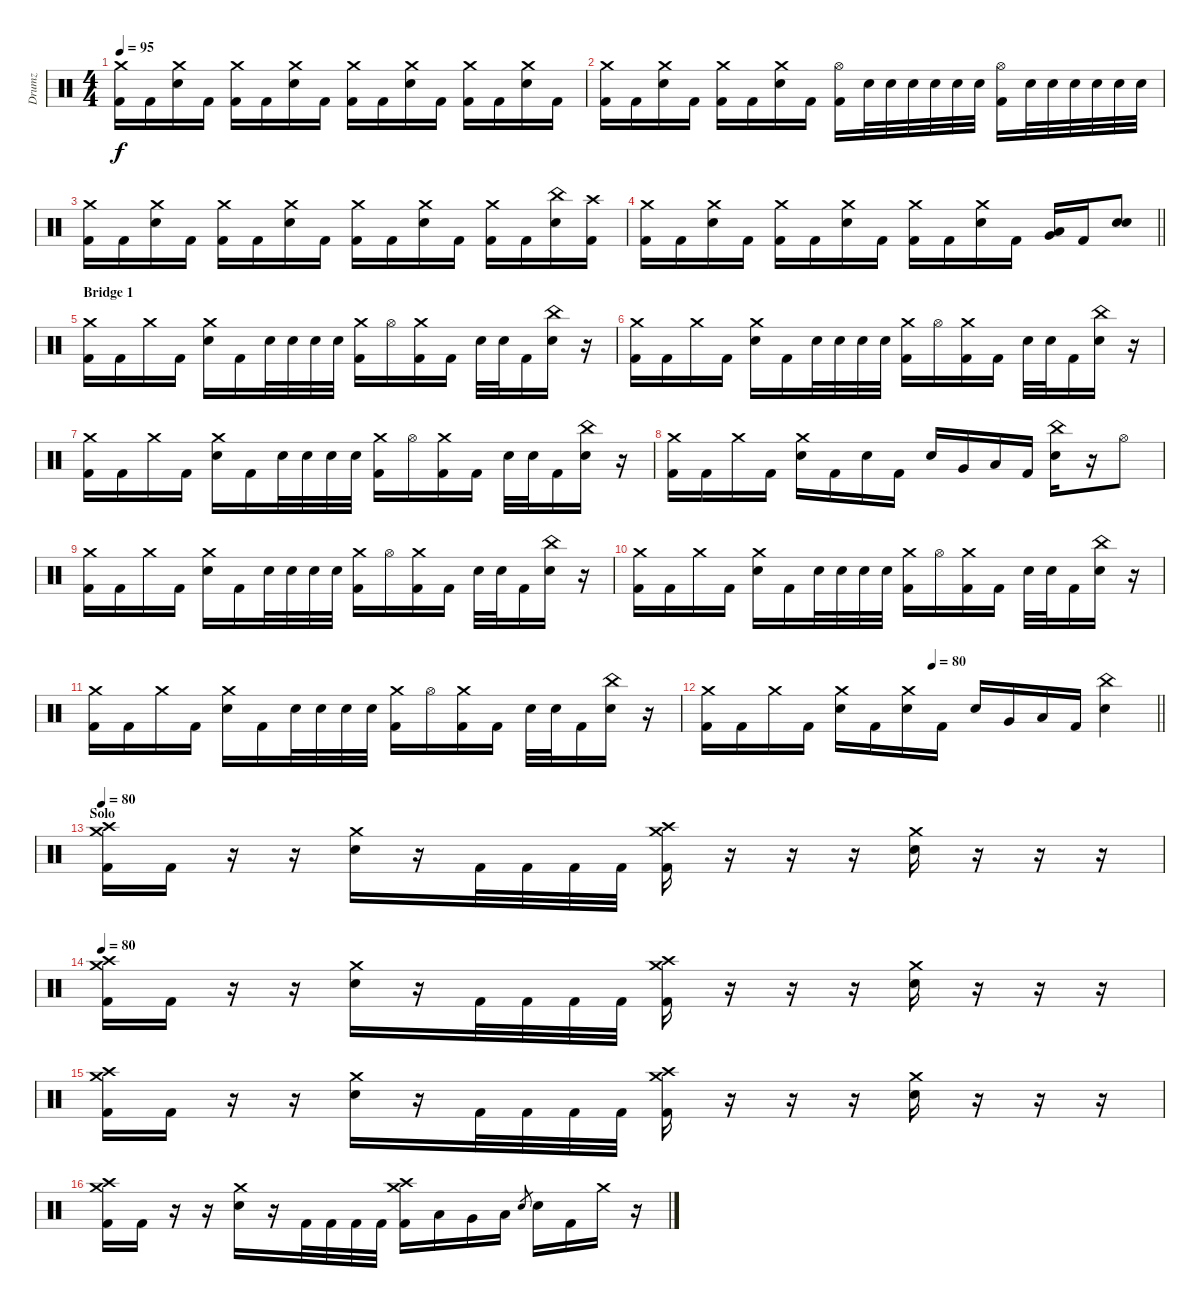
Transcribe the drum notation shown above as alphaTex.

\track ("Drumz" "Drumz") {instrument percussion}
\staff {score}
\articulation defaults
\ts (4 4)
\tempo 95
\clef neutral
\ks c
("Crash medium (hit)" "Kick (hit) 2").16{dy f} "Kick (hit) 2".16 ("Crash medium (hit)" "Electric Snare (hit)").16 "Kick (hit) 2".16 ("Crash medium (hit)" "Kick (hit) 2").16 "Kick (hit) 2".16 ("Crash medium (hit)" "Electric Snare (hit)").16 "Kick (hit) 2".16 ("Crash medium (hit)" "Kick (hit) 2").16 "Kick (hit) 2".16 ("Crash medium (hit)" "Electric Snare (hit)").16 "Kick (hit) 2".16 ("Crash medium (hit)" "Kick (hit) 2").16 "Kick (hit) 2".16 ("Crash medium (hit)" "Electric Snare (hit)").16 "Kick (hit) 2".16 |
("Crash medium (hit)" "Kick (hit) 2").16 "Kick (hit) 2".16 ("Crash medium (hit)" "Electric Snare (hit)").16 "Kick (hit) 2".16 ("Crash medium (hit)" "Kick (hit) 2").16 "Kick (hit) 2".16 ("Crash medium (hit)" "Electric Snare (hit)").16 "Kick (hit) 2".16 ("Hi-Hat (open)" "Kick (hit) 2").16 "Electric Snare (hit)".32 "Electric Snare (hit)".32 "Electric Snare (hit)".32 "Electric Snare (hit)".32 "Electric Snare (hit)".32 "Electric Snare (hit)".32 ("Hi-Hat (open)" "Kick (hit) 2").16 "Electric Snare (hit)".32 "Electric Snare (hit)".32 "Electric Snare (hit)".32 "Electric Snare (hit)".32 "Electric Snare (hit)".32 "Electric Snare (hit)".32 |
("Crash medium (hit)" "Kick (hit) 2").16 "Kick (hit) 2".16 ("Crash medium (hit)" "Electric Snare (hit)").16 "Kick (hit) 2".16 ("Crash medium (hit)" "Kick (hit) 2").16 "Kick (hit) 2".16 ("Crash medium (hit)" "Electric Snare (hit)").16 "Kick (hit) 2".16 ("Crash medium (hit)" "Kick (hit) 2").16 "Kick (hit) 2".16 ("Crash medium (hit)" "Electric Snare (hit)").16 "Kick (hit) 2".16 ("Crash medium (hit)" "Kick (hit) 2").16 "Kick (hit) 2".16 ("China (hit)" "Electric Snare (hit)").16 ("Crash high (hit)" "Kick (hit) 2").16 |
\barLineRight lightlight
("Crash medium (hit)" "Kick (hit) 2").16 "Kick (hit) 2".16 ("Crash medium (hit)" "Electric Snare (hit)").16 "Kick (hit) 2".16 ("Crash medium (hit)" "Kick (hit) 2").16 "Kick (hit) 2".16 ("Crash medium (hit)" "Electric Snare (hit)").16 "Kick (hit) 2".16 ("Crash medium (hit)" "Kick (hit) 2").16 "Kick (hit) 2".16 ("Crash medium (hit)" "Electric Snare (hit)").16 "Kick (hit) 2".16 ("Very Low Tom (hit)" "Low Floor Tom (hit)").16 "Kick (hit) 2".16 ("Electric Snare (hit)" "Electric Snare (hit)").8 |
\section ("" "Bridge 1")
("Crash medium (hit)" "Kick (hit) 2").16 "Kick (hit) 2".16 "Crash medium (hit)".16 "Kick (hit) 2".16 ("Crash medium (hit)" "Electric Snare (hit)").16 "Kick (hit) 2".16 "Electric Snare (hit)".32 "Electric Snare (hit)".32 "Electric Snare (hit)".32 "Electric Snare (hit)".32 ("Crash medium (hit)" "Kick (hit) 2").16 "Hi-Hat (open)".16 ("Crash medium (hit)" "Kick (hit) 2").16 "Kick (hit) 2".16 "Electric Snare (hit)".32 "Electric Snare (hit)".32 "Kick (hit) 2".16 ("China (hit)" "Electric Snare (hit)").16 r.16 |
("Crash medium (hit)" "Kick (hit) 2").16 "Kick (hit) 2".16 "Crash medium (hit)".16 "Kick (hit) 2".16 ("Crash medium (hit)" "Electric Snare (hit)").16 "Kick (hit) 2".16 "Electric Snare (hit)".32 "Electric Snare (hit)".32 "Electric Snare (hit)".32 "Electric Snare (hit)".32 ("Crash medium (hit)" "Kick (hit) 2").16 "Hi-Hat (open)".16 ("Crash medium (hit)" "Kick (hit) 2").16 "Kick (hit) 2".16 "Electric Snare (hit)".32 "Electric Snare (hit)".32 "Kick (hit) 2".16 ("China (hit)" "Electric Snare (hit)").16 r.16 |
("Crash medium (hit)" "Kick (hit) 2").16 "Kick (hit) 2".16 "Crash medium (hit)".16 "Kick (hit) 2".16 ("Crash medium (hit)" "Electric Snare (hit)").16 "Kick (hit) 2".16 "Electric Snare (hit)".32 "Electric Snare (hit)".32 "Electric Snare (hit)".32 "Electric Snare (hit)".32 ("Crash medium (hit)" "Kick (hit) 2").16 "Hi-Hat (open)".16 ("Crash medium (hit)" "Kick (hit) 2").16 "Kick (hit) 2".16 "Electric Snare (hit)".32 "Electric Snare (hit)".32 "Kick (hit) 2".16 ("China (hit)" "Electric Snare (hit)").16 r.16 |
("Crash medium (hit)" "Kick (hit) 2").16 "Kick (hit) 2".16 "Crash medium (hit)".16 "Kick (hit) 2".16 ("Crash medium (hit)" "Electric Snare (hit)").16 "Kick (hit) 2".16 "Electric Snare (hit)".16 "Kick (hit) 2".16 "Electric Snare (hit)".16 "Very Low Tom (hit)".16 "Low Floor Tom (hit)".16 "Kick (hit) 2".16 ("China (hit)" "Electric Snare (hit)").16 r.16 "Hi-Hat (open)".8 |
("Crash medium (hit)" "Kick (hit) 2").16 "Kick (hit) 2".16 "Crash medium (hit)".16 "Kick (hit) 2".16 ("Crash medium (hit)" "Electric Snare (hit)").16 "Kick (hit) 2".16 "Electric Snare (hit)".32 "Electric Snare (hit)".32 "Electric Snare (hit)".32 "Electric Snare (hit)".32 ("Crash medium (hit)" "Kick (hit) 2").16 "Hi-Hat (open)".16 ("Crash medium (hit)" "Kick (hit) 2").16 "Kick (hit) 2".16 "Electric Snare (hit)".32 "Electric Snare (hit)".32 "Kick (hit) 2".16 ("China (hit)" "Electric Snare (hit)").16 r.16 |
("Crash medium (hit)" "Kick (hit) 2").16 "Kick (hit) 2".16 "Crash medium (hit)".16 "Kick (hit) 2".16 ("Crash medium (hit)" "Electric Snare (hit)").16 "Kick (hit) 2".16 "Electric Snare (hit)".32 "Electric Snare (hit)".32 "Electric Snare (hit)".32 "Electric Snare (hit)".32 ("Crash medium (hit)" "Kick (hit) 2").16 "Hi-Hat (open)".16 ("Crash medium (hit)" "Kick (hit) 2").16 "Kick (hit) 2".16 "Electric Snare (hit)".32 "Electric Snare (hit)".32 "Kick (hit) 2".16 ("China (hit)" "Electric Snare (hit)").16 r.16 |
("Crash medium (hit)" "Kick (hit) 2").16 "Kick (hit) 2".16 "Crash medium (hit)".16 "Kick (hit) 2".16 ("Crash medium (hit)" "Electric Snare (hit)").16 "Kick (hit) 2".16 "Electric Snare (hit)".32 "Electric Snare (hit)".32 "Electric Snare (hit)".32 "Electric Snare (hit)".32 ("Crash medium (hit)" "Kick (hit) 2").16 "Hi-Hat (open)".16 ("Crash medium (hit)" "Kick (hit) 2").16 "Kick (hit) 2".16 "Electric Snare (hit)".32 "Electric Snare (hit)".32 "Kick (hit) 2".16 ("China (hit)" "Electric Snare (hit)").16 r.16 |
\tempo (80 0.5)
\barLineRight lightlight
("Crash medium (hit)" "Kick (hit) 2").16 "Kick (hit) 2".16 "Crash medium (hit)".16 "Kick (hit) 2".16 ("Crash medium (hit)" "Electric Snare (hit)").16 "Kick (hit) 2".16 ("Crash medium (hit)" "Electric Snare (hit)").16 "Kick (hit) 2".16 "Electric Snare (hit)".16 "Very Low Tom (hit)".16 "Low Floor Tom (hit)".16 "Kick (hit) 2".16 ("China (hit)" "Electric Snare (hit)").4 |
\section ("" "Solo")
\tempo 80
("Crash medium (hit)" "Crash high (hit)" "Kick (hit) 2").16 "Kick (hit) 2".16 r.16 r.16 ("Crash medium (hit)" "Electric Snare (hit)").16 r.16 "Kick (hit) 2".32 "Kick (hit) 2".32 "Kick (hit) 2".32 "Kick (hit) 2".32 ("Crash medium (hit)" "Crash high (hit)" "Kick (hit) 2").16 r.16 r.16 r.16 ("Crash medium (hit)" "Electric Snare (hit)").16 r.16 r.16 r.16 |
\tempo 80
("Crash medium (hit)" "Crash high (hit)" "Kick (hit) 2").16 "Kick (hit) 2".16 r.16 r.16 ("Crash medium (hit)" "Electric Snare (hit)").16 r.16 "Kick (hit) 2".32 "Kick (hit) 2".32 "Kick (hit) 2".32 "Kick (hit) 2".32 ("Crash medium (hit)" "Crash high (hit)" "Kick (hit) 2").16 r.16 r.16 r.16 ("Crash medium (hit)" "Electric Snare (hit)").16 r.16 r.16 r.16 |
("Crash medium (hit)" "Crash high (hit)" "Kick (hit) 2").16 "Kick (hit) 2".16 r.16 r.16 ("Crash medium (hit)" "Electric Snare (hit)").16 r.16 "Kick (hit) 2".32 "Kick (hit) 2".32 "Kick (hit) 2".32 "Kick (hit) 2".32 ("Crash medium (hit)" "Crash high (hit)" "Kick (hit) 2").16 r.16 r.16 r.16 ("Crash medium (hit)" "Electric Snare (hit)").16 r.16 r.16 r.16 |
("Crash medium (hit)" "Crash high (hit)" "Kick (hit) 2").16 "Kick (hit) 2".16 r.16 r.16 ("Crash medium (hit)" "Electric Snare (hit)").16 r.16 "Kick (hit) 2".32 "Kick (hit) 2".32 "Kick (hit) 2".32 "Kick (hit) 2".32 ("Crash medium (hit)" "Crash high (hit)" "Kick (hit) 2").16 "Low Floor Tom (hit)".16 "Very Low Tom (hit)".16 "Low Floor Tom (hit)".16 "Electric Snare (hit)".8{gr} "Electric Snare (hit)".16 "Kick (hit) 2".16 "Crash medium (hit)".16 r.16
